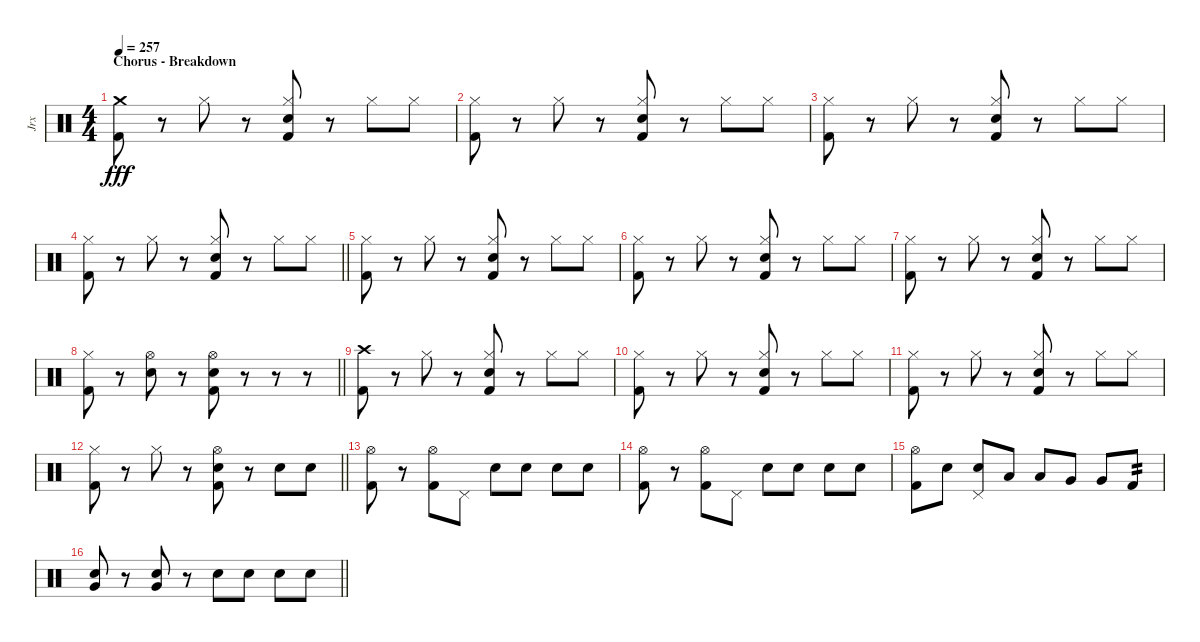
\track ("Jrx" "Jrx") {instrument percussion}
\staff {score}
\articulation defaults
\ts (4 4)
\section ("" "Chorus - Breakdown")
\tempo 257
\clef neutral
\ks c
("Kick (hit) 2" "Crash medium (hit)").8{dy fff} r.8 "Hi-Hat (closed)".8 r.8 ("Hi-Hat (closed)" "Snare (hit) 2" "Kick (hit) 2").8 r.8 "Hi-Hat (closed)".8 "Hi-Hat (closed)".8 |
("Hi-Hat (closed)" "Kick (hit) 2").8 r.8 "Hi-Hat (closed)".8 r.8 ("Hi-Hat (closed)" "Snare (hit) 2" "Kick (hit) 2").8 r.8 "Hi-Hat (closed)".8 "Hi-Hat (closed)".8 |
("Hi-Hat (closed)" "Kick (hit) 2").8 r.8 "Hi-Hat (closed)".8 r.8 ("Hi-Hat (closed)" "Snare (hit) 2" "Kick (hit) 2").8 r.8 "Hi-Hat (closed)".8 "Hi-Hat (closed)".8 |
\barLineRight lightlight
("Hi-Hat (closed)" "Kick (hit) 2").8 r.8 "Hi-Hat (closed)".8 r.8 ("Hi-Hat (closed)" "Snare (hit) 2" "Kick (hit) 2").8 r.8 "Hi-Hat (closed)".8 "Hi-Hat (closed)".8 |
("Hi-Hat (closed)" "Kick (hit) 2").8 r.8 "Hi-Hat (closed)".8 r.8 ("Hi-Hat (closed)" "Snare (hit) 2" "Kick (hit) 2").8 r.8 "Hi-Hat (closed)".8 "Hi-Hat (closed)".8 |
("Hi-Hat (closed)" "Kick (hit) 2").8 r.8 "Hi-Hat (closed)".8 r.8 ("Hi-Hat (closed)" "Snare (hit) 2" "Kick (hit) 2").8 r.8 "Hi-Hat (closed)".8 "Hi-Hat (closed)".8 |
("Hi-Hat (closed)" "Kick (hit) 2").8 r.8 "Hi-Hat (closed)".8 r.8 ("Hi-Hat (closed)" "Snare (hit) 2" "Kick (hit) 2").8 r.8 "Hi-Hat (closed)".8 "Hi-Hat (closed)".8 |
\barLineRight lightlight
("Hi-Hat (closed)" "Kick (hit) 2").8 r.8 ("Hi-Hat (open)" "Snare (hit) 2").8 r.8 ("Hi-Hat (open)" "Snare (hit) 2" "Kick (hit) 2").8 r.8 r.8 r.8 |
("Kick (hit) 2" "Crash high (hit)").8 r.8 "Hi-Hat (closed)".8 r.8 ("Hi-Hat (closed)" "Snare (hit) 2" "Kick (hit) 2").8 r.8 "Hi-Hat (closed)".8 "Hi-Hat (closed)".8 |
("Hi-Hat (closed)" "Kick (hit) 2").8 r.8 "Hi-Hat (closed)".8 r.8 ("Hi-Hat (closed)" "Snare (hit) 2" "Kick (hit) 2").8 r.8 "Hi-Hat (closed)".8 "Hi-Hat (closed)".8 |
("Hi-Hat (closed)" "Kick (hit) 2").8 r.8 "Hi-Hat (closed)".8 r.8 ("Hi-Hat (closed)" "Snare (hit) 2" "Kick (hit) 2").8 r.8 "Hi-Hat (closed)".8 "Hi-Hat (closed)".8 |
\barLineRight lightlight
("Hi-Hat (closed)" "Kick (hit) 2").8 r.8 "Hi-Hat (closed)".8 r.8 ("Hi-Hat (open)" "Snare (hit) 2" "Kick (hit) 2").8 r.8 "Snare (hit) 2".8 "Snare (hit) 2".8 |
("Hi-Hat (open)" "Kick (hit) 2").8 r.8 ("Hi-Hat (open)" "Kick (hit) 2").8 "Pedal Hi-Hat (hit)".8 "Snare (hit) 2".8 "Snare (hit) 2".8 "Snare (hit) 2".8 "Snare (hit) 2".8 |
("Hi-Hat (open)" "Kick (hit) 2").8 r.8 ("Hi-Hat (open)" "Kick (hit) 2").8 "Pedal Hi-Hat (hit)".8 "Snare (hit) 2".8 "Snare (hit) 2".8 "Snare (hit) 2".8 "Snare (hit) 2".8 |
("Hi-Hat (open)" "Kick (hit) 2").8 "Snare (hit) 2".8 ("Pedal Hi-Hat (hit)" "Snare (hit) 2").8 "Low Tom (hit)".8 "Low Tom (hit)".8 "Very Low Tom (hit)".8 "Very Low Tom (hit)".8 "Kick (hit) 2".8{tp 2} |
\barLineRight lightlight
("Snare (hit) 2" "Very Low Tom (hit)").8 r.8 ("Snare (hit) 2" "Very Low Tom (hit)").8 r.8 "Snare (hit) 2".8 "Snare (hit) 2".8 "Snare (hit) 2".8 "Snare (hit) 2".8
